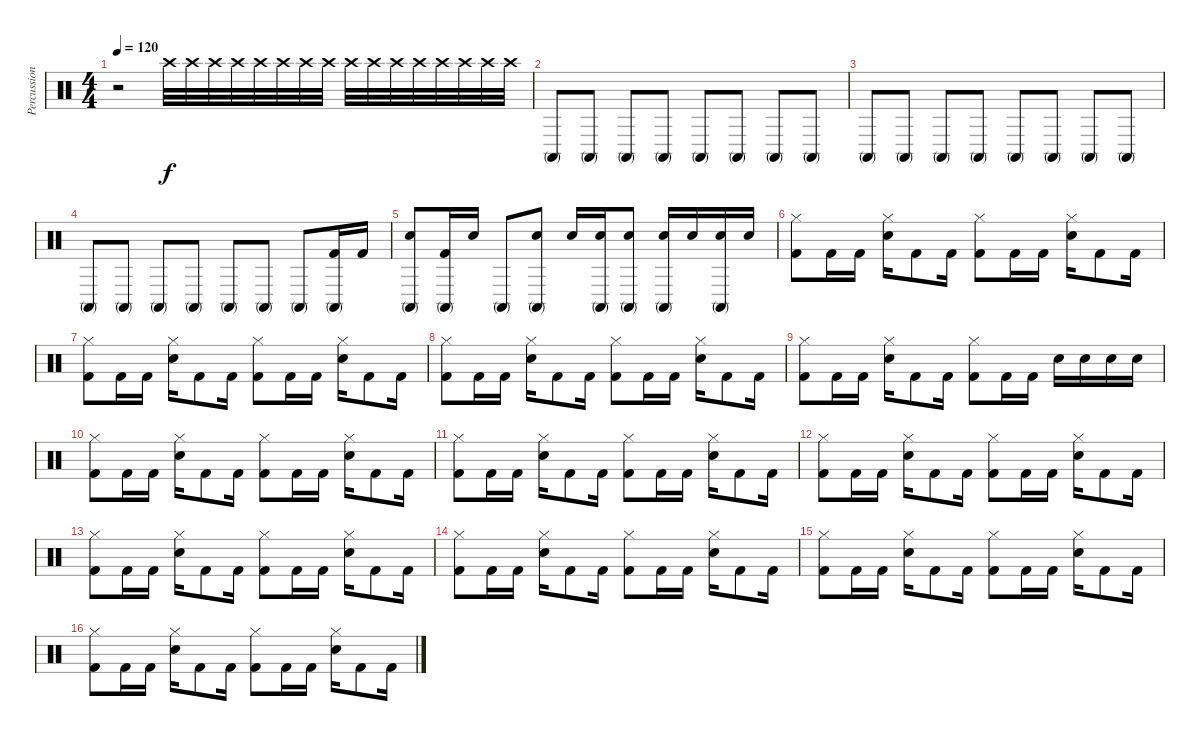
\track ("Percussion" "Percussion") {instrument percussion}
\staff {score}
\articulation defaults
\ts (4 4)
\tempo 120
\clef neutral
\ks c
r.2{dy f volume 0} "Crash high (hit)".32{volume 13} "Crash high (hit)".32 "Crash high (hit)".32 "Crash high (hit)".32 "Crash high (hit)".32 "Crash high (hit)".32 "Crash high (hit)".32 "Crash high (hit)".32 "Crash high (hit)".32 "Crash high (hit)".32 "Crash high (hit)".32 "Crash high (hit)".32 "Crash high (hit)".32 "Crash high (hit)".32 "Crash high (hit)".32 "Crash high (hit)".32 |
"Conga high (mute)".8 "Conga high (mute)".8 "Conga high (mute)".8 "Conga high (mute)".8 "Conga high (mute)".8 "Conga high (mute)".8 "Conga high (mute)".8 "Conga high (mute)".8 |
"Conga high (mute)".8 "Conga high (mute)".8 "Conga high (mute)".8 "Conga high (mute)".8 "Conga high (mute)".8 "Conga high (mute)".8 "Conga high (mute)".8 "Conga high (mute)".8 |
"Conga high (mute)".8 "Conga high (mute)".8 "Conga high (mute)".8 "Conga high (mute)".8 "Conga high (mute)".8 "Conga high (mute)".8 "Conga high (mute)".8 ("Conga high (mute)" "Kick (hit) 2").16 "Kick (hit) 2".16 |
("Conga high (mute)" "Electric Snare (hit)").8 ("Conga high (mute)" "Kick (hit) 2").16 "Electric Snare (hit)".16 "Conga high (mute)".8 ("Conga high (mute)" "Electric Snare (hit)").8 "Electric Snare (hit)".16 ("Conga high (mute)" "Electric Snare (hit)").16 ("Conga high (mute)" "Electric Snare (hit)").8 ("Conga high (mute)" "Electric Snare (hit)").16 "Electric Snare (hit)".16 ("Conga high (mute)" "Electric Snare (hit)").16 "Electric Snare (hit)".16 |
("Hi-Hat (closed)" "Kick (hit) 2").8 "Kick (hit) 2".16 "Kick (hit) 2".16 ("Hi-Hat (closed)" "Electric Snare (hit)").16 "Kick (hit) 2".8 "Kick (hit) 2".16 ("Hi-Hat (closed)" "Kick (hit) 2").8 "Kick (hit) 2".16 "Kick (hit) 2".16 ("Hi-Hat (closed)" "Electric Snare (hit)").16 "Kick (hit) 2".8 "Kick (hit) 2".16 |
("Hi-Hat (closed)" "Kick (hit) 2").8 "Kick (hit) 2".16 "Kick (hit) 2".16 ("Hi-Hat (closed)" "Electric Snare (hit)").16 "Kick (hit) 2".8 "Kick (hit) 2".16 ("Hi-Hat (closed)" "Kick (hit) 2").8 "Kick (hit) 2".16 "Kick (hit) 2".16 ("Hi-Hat (closed)" "Electric Snare (hit)").16 "Kick (hit) 2".8 "Kick (hit) 2".16 |
("Hi-Hat (closed)" "Kick (hit) 2").8 "Kick (hit) 2".16 "Kick (hit) 2".16 ("Hi-Hat (closed)" "Electric Snare (hit)").16 "Kick (hit) 2".8 "Kick (hit) 2".16 ("Hi-Hat (closed)" "Kick (hit) 2").8 "Kick (hit) 2".16 "Kick (hit) 2".16 ("Hi-Hat (closed)" "Electric Snare (hit)").16 "Kick (hit) 2".8 "Kick (hit) 2".16 |
("Hi-Hat (closed)" "Kick (hit) 2").8 "Kick (hit) 2".16 "Kick (hit) 2".16 ("Hi-Hat (closed)" "Electric Snare (hit)").16 "Kick (hit) 2".8 "Kick (hit) 2".16 ("Hi-Hat (closed)" "Kick (hit) 2").8 "Kick (hit) 2".16 "Kick (hit) 2".16 "Electric Snare (hit)".16 "Electric Snare (hit)".16 "Electric Snare (hit)".16 "Electric Snare (hit)".16 |
("Hi-Hat (closed)" "Kick (hit) 2").8 "Kick (hit) 2".16 "Kick (hit) 2".16 ("Hi-Hat (closed)" "Electric Snare (hit)").16 "Kick (hit) 2".8 "Kick (hit) 2".16 ("Hi-Hat (closed)" "Kick (hit) 2").8 "Kick (hit) 2".16 "Kick (hit) 2".16 ("Hi-Hat (closed)" "Electric Snare (hit)").16 "Kick (hit) 2".8 "Kick (hit) 2".16 |
("Hi-Hat (closed)" "Kick (hit) 2").8 "Kick (hit) 2".16 "Kick (hit) 2".16 ("Hi-Hat (closed)" "Electric Snare (hit)").16 "Kick (hit) 2".8 "Kick (hit) 2".16 ("Hi-Hat (closed)" "Kick (hit) 2").8 "Kick (hit) 2".16 "Kick (hit) 2".16 ("Hi-Hat (closed)" "Electric Snare (hit)").16 "Kick (hit) 2".8 "Kick (hit) 2".16 |
("Hi-Hat (closed)" "Kick (hit) 2").8 "Kick (hit) 2".16 "Kick (hit) 2".16 ("Hi-Hat (closed)" "Electric Snare (hit)").16 "Kick (hit) 2".8 "Kick (hit) 2".16 ("Hi-Hat (closed)" "Kick (hit) 2").8 "Kick (hit) 2".16 "Kick (hit) 2".16 ("Hi-Hat (closed)" "Electric Snare (hit)").16 "Kick (hit) 2".8 "Kick (hit) 2".16 |
("Hi-Hat (closed)" "Kick (hit) 2").8 "Kick (hit) 2".16 "Kick (hit) 2".16 ("Hi-Hat (closed)" "Electric Snare (hit)").16 "Kick (hit) 2".8 "Kick (hit) 2".16 ("Hi-Hat (closed)" "Kick (hit) 2").8 "Kick (hit) 2".16 "Kick (hit) 2".16 ("Hi-Hat (closed)" "Electric Snare (hit)").16 "Kick (hit) 2".8 "Kick (hit) 2".16 |
("Hi-Hat (closed)" "Kick (hit) 2").8 "Kick (hit) 2".16 "Kick (hit) 2".16 ("Hi-Hat (closed)" "Electric Snare (hit)").16 "Kick (hit) 2".8 "Kick (hit) 2".16 ("Hi-Hat (closed)" "Kick (hit) 2").8 "Kick (hit) 2".16 "Kick (hit) 2".16 ("Hi-Hat (closed)" "Electric Snare (hit)").16 "Kick (hit) 2".8 "Kick (hit) 2".16 |
("Hi-Hat (closed)" "Kick (hit) 2").8 "Kick (hit) 2".16 "Kick (hit) 2".16 ("Hi-Hat (closed)" "Electric Snare (hit)").16 "Kick (hit) 2".8 "Kick (hit) 2".16 ("Hi-Hat (closed)" "Kick (hit) 2").8 "Kick (hit) 2".16 "Kick (hit) 2".16 ("Hi-Hat (closed)" "Electric Snare (hit)").16 "Kick (hit) 2".8 "Kick (hit) 2".16 |
("Hi-Hat (closed)" "Kick (hit) 2").8 "Kick (hit) 2".16 "Kick (hit) 2".16 ("Hi-Hat (closed)" "Electric Snare (hit)").16 "Kick (hit) 2".8 "Kick (hit) 2".16 ("Hi-Hat (closed)" "Kick (hit) 2").8 "Kick (hit) 2".16 "Kick (hit) 2".16 ("Hi-Hat (closed)" "Electric Snare (hit)").16 "Kick (hit) 2".8 "Kick (hit) 2".16
